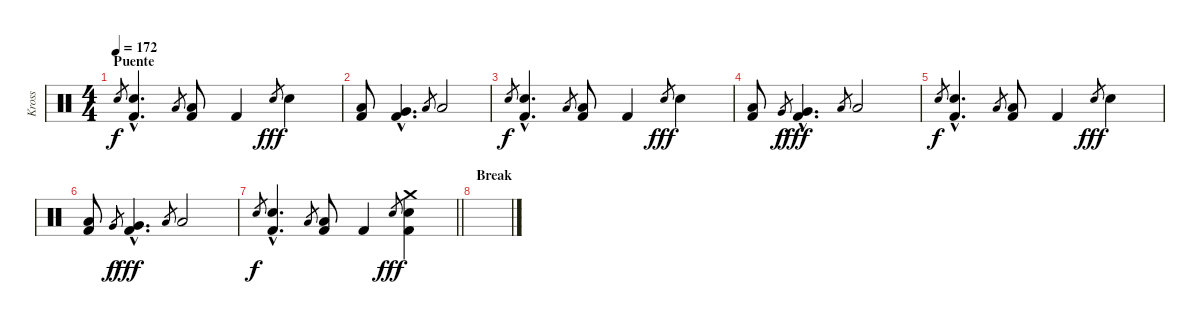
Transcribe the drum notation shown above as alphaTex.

\track ("Kross" "Kross") {instrument percussion}
\staff {score}
\articulation defaults
\ts (4 4)
\section ("" "Puente")
\tempo 172
\clef neutral
\ks c "Snare (hit) 2".8{gr dy f}
("Snare (hit) 2"{hac} "Kick (hit) 2"{hac}).4{d} "Low Tom (hit)".8{gr} ("Low Tom (hit)" "Kick (hit) 2").8 "Kick (hit) 2".4 "Snare (hit) 2".8{gr dy fff} "Snare (hit) 2".4 |
("Low Tom (hit)" "Kick (hit) 2").8 ("Very Low Tom (hit)"{hac} "Kick (hit) 2"{hac}).4{d} "Low Tom (hit)".8{gr} "Low Tom (hit)".2 |
"Snare (hit) 2".8{gr dy f} ("Snare (hit) 2"{hac} "Kick (hit) 2"{hac}).4{d} "Low Tom (hit)".8{gr} ("Low Tom (hit)" "Kick (hit) 2").8 "Kick (hit) 2".4 "Snare (hit) 2".8{gr dy fff} "Snare (hit) 2".4 |
("Low Tom (hit)" "Kick (hit) 2").8 "Very Low Tom (hit)".8{gr dy f} ("Very Low Tom (hit)"{hac} "Kick (hit) 2"{hac}).4{d dy fff} "Low Tom (hit)".8{gr} "Low Tom (hit)".2 |
"Snare (hit) 2".8{gr dy f} ("Snare (hit) 2"{hac} "Kick (hit) 2"{hac}).4{d} "Low Tom (hit)".8{gr} ("Low Tom (hit)" "Kick (hit) 2").8 "Kick (hit) 2".4 "Snare (hit) 2".8{gr dy fff} "Snare (hit) 2".4 |
("Low Tom (hit)" "Kick (hit) 2").8 "Very Low Tom (hit)".8{gr dy f} ("Very Low Tom (hit)"{hac} "Kick (hit) 2"{hac}).4{d dy fff} "Low Tom (hit)".8{gr} "Low Tom (hit)".2 |
\barLineRight lightlight "Snare (hit) 2".8{gr dy f}
("Snare (hit) 2"{hac} "Kick (hit) 2"{hac}).4{d} "Low Tom (hit)".8{gr} ("Low Tom (hit)" "Kick (hit) 2").8 "Kick (hit) 2".4 "Snare (hit) 2".8{gr dy fff} ("Crash medium (hit)" "Snare (hit) 2" "Kick (hit) 2").4 |
\section ("" "Break")
